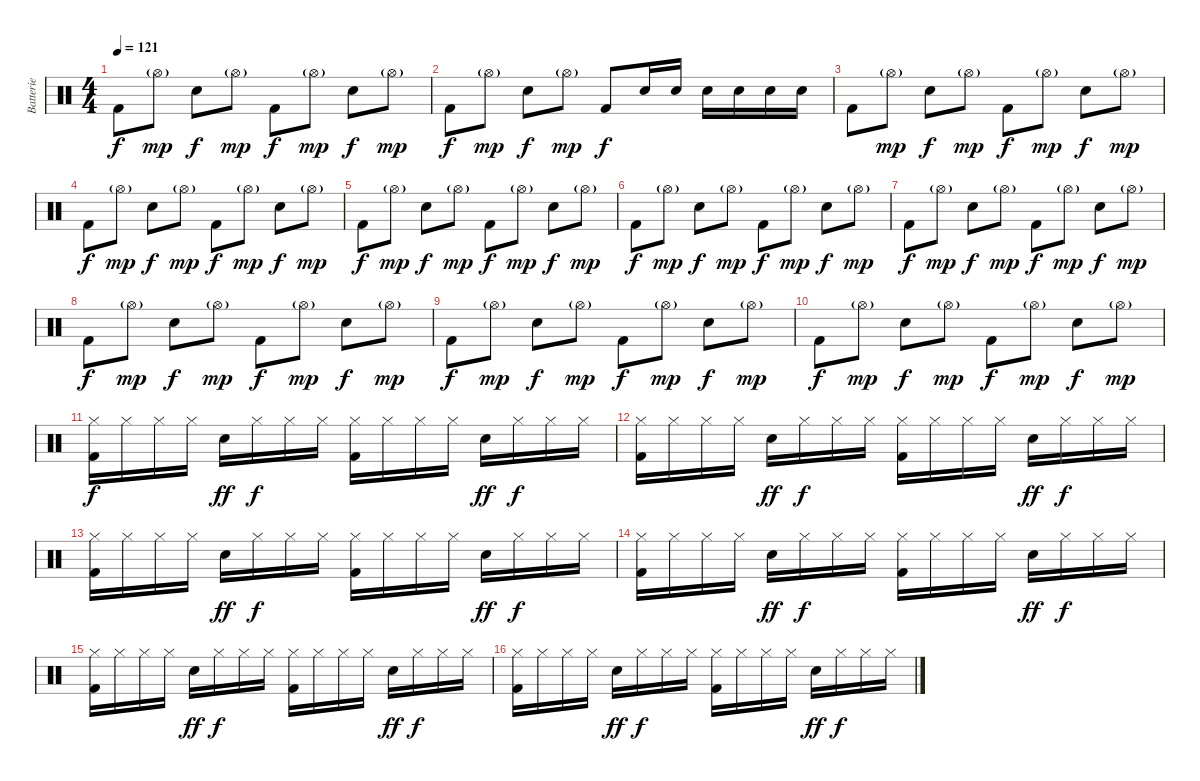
\track ("Batterie" "Batterie") {instrument percussion}
\staff {score}
\articulation defaults
\ts (4 4)
\tempo 121
\clef neutral
\ks c "Kick (hit) 2".8{dy f} "Hi-Hat (open)"{g}.8{dy mp} "Electric Snare (hit)".8{dy f} "Hi-Hat (open)"{g}.8{dy mp} "Kick (hit) 2".8{dy f} "Hi-Hat (open)"{g}.8{dy mp} "Electric Snare (hit)".8{dy f} "Hi-Hat (open)"{g}.8{dy mp}
|
"Kick (hit) 2".8{dy f} "Hi-Hat (open)"{g}.8{dy mp} "Electric Snare (hit)".8{dy f} "Hi-Hat (open)"{g}.8{dy mp} "Kick (hit) 2".8{dy f} "Electric Snare (hit)".16 "Electric Snare (hit)".16 "Electric Snare (hit)".16 "Electric Snare (hit)".16 "Electric Snare (hit)".16 "Electric Snare (hit)".16 |
"Kick (hit) 2".8 "Hi-Hat (open)"{g}.8{dy mp} "Electric Snare (hit)".8{dy f} "Hi-Hat (open)"{g}.8{dy mp} "Kick (hit) 2".8{dy f} "Hi-Hat (open)"{g}.8{dy mp} "Electric Snare (hit)".8{dy f} "Hi-Hat (open)"{g}.8{dy mp} |
"Kick (hit) 2".8{dy f} "Hi-Hat (open)"{g}.8{dy mp} "Electric Snare (hit)".8{dy f} "Hi-Hat (open)"{g}.8{dy mp} "Kick (hit) 2".8{dy f} "Hi-Hat (open)"{g}.8{dy mp} "Electric Snare (hit)".8{dy f} "Hi-Hat (open)"{g}.8{dy mp} |
"Kick (hit) 2".8{dy f} "Hi-Hat (open)"{g}.8{dy mp} "Electric Snare (hit)".8{dy f} "Hi-Hat (open)"{g}.8{dy mp} "Kick (hit) 2".8{dy f} "Hi-Hat (open)"{g}.8{dy mp} "Electric Snare (hit)".8{dy f} "Hi-Hat (open)"{g}.8{dy mp} |
"Kick (hit) 2".8{dy f} "Hi-Hat (open)"{g}.8{dy mp} "Electric Snare (hit)".8{dy f} "Hi-Hat (open)"{g}.8{dy mp} "Kick (hit) 2".8{dy f} "Hi-Hat (open)"{g}.8{dy mp} "Electric Snare (hit)".8{dy f} "Hi-Hat (open)"{g}.8{dy mp} |
"Kick (hit) 2".8{dy f} "Hi-Hat (open)"{g}.8{dy mp} "Electric Snare (hit)".8{dy f} "Hi-Hat (open)"{g}.8{dy mp} "Kick (hit) 2".8{dy f} "Hi-Hat (open)"{g}.8{dy mp} "Electric Snare (hit)".8{dy f} "Hi-Hat (open)"{g}.8{dy mp} |
"Kick (hit) 2".8{dy f} "Hi-Hat (open)"{g}.8{dy mp} "Electric Snare (hit)".8{dy f} "Hi-Hat (open)"{g}.8{dy mp} "Kick (hit) 2".8{dy f} "Hi-Hat (open)"{g}.8{dy mp} "Electric Snare (hit)".8{dy f} "Hi-Hat (open)"{g}.8{dy mp} |
"Kick (hit) 2".8{dy f} "Hi-Hat (open)"{g}.8{dy mp} "Electric Snare (hit)".8{dy f} "Hi-Hat (open)"{g}.8{dy mp} "Kick (hit) 2".8{dy f} "Hi-Hat (open)"{g}.8{dy mp} "Electric Snare (hit)".8{dy f} "Hi-Hat (open)"{g}.8{dy mp} |
"Kick (hit) 2".8{dy f} "Hi-Hat (open)"{g}.8{dy mp} "Electric Snare (hit)".8{dy f} "Hi-Hat (open)"{g}.8{dy mp} "Kick (hit) 2".8{dy f} "Hi-Hat (open)"{g}.8{dy mp} "Electric Snare (hit)".8{dy f} "Hi-Hat (open)"{g}.8{dy mp} |
("Hi-Hat (closed)" "Kick (hit) 2").16{dy f} "Hi-Hat (closed)".16 "Hi-Hat (closed)".16 "Hi-Hat (closed)".16 "Electric Snare (hit)".16{dy ff} "Hi-Hat (closed)".16{dy f} "Hi-Hat (closed)".16 "Hi-Hat (closed)".16 ("Hi-Hat (closed)" "Kick (hit) 2").16 "Hi-Hat (closed)".16 "Hi-Hat (closed)".16 "Hi-Hat (closed)".16 "Electric Snare (hit)".16{dy ff} "Hi-Hat (closed)".16{dy f} "Hi-Hat (closed)".16 "Hi-Hat (closed)".16 |
("Hi-Hat (closed)" "Kick (hit) 2").16 "Hi-Hat (closed)".16 "Hi-Hat (closed)".16 "Hi-Hat (closed)".16 "Electric Snare (hit)".16{dy ff} "Hi-Hat (closed)".16{dy f} "Hi-Hat (closed)".16 "Hi-Hat (closed)".16 ("Hi-Hat (closed)" "Kick (hit) 2").16 "Hi-Hat (closed)".16 "Hi-Hat (closed)".16 "Hi-Hat (closed)".16 "Electric Snare (hit)".16{dy ff} "Hi-Hat (closed)".16{dy f} "Hi-Hat (closed)".16 "Hi-Hat (closed)".16 |
("Hi-Hat (closed)" "Kick (hit) 2").16 "Hi-Hat (closed)".16 "Hi-Hat (closed)".16 "Hi-Hat (closed)".16 "Electric Snare (hit)".16{dy ff} "Hi-Hat (closed)".16{dy f} "Hi-Hat (closed)".16 "Hi-Hat (closed)".16 ("Hi-Hat (closed)" "Kick (hit) 2").16 "Hi-Hat (closed)".16 "Hi-Hat (closed)".16 "Hi-Hat (closed)".16 "Electric Snare (hit)".16{dy ff} "Hi-Hat (closed)".16{dy f} "Hi-Hat (closed)".16 "Hi-Hat (closed)".16 |
("Hi-Hat (closed)" "Kick (hit) 2").16 "Hi-Hat (closed)".16 "Hi-Hat (closed)".16 "Hi-Hat (closed)".16 "Electric Snare (hit)".16{dy ff} "Hi-Hat (closed)".16{dy f} "Hi-Hat (closed)".16 "Hi-Hat (closed)".16 ("Hi-Hat (closed)" "Kick (hit) 2").16 "Hi-Hat (closed)".16 "Hi-Hat (closed)".16 "Hi-Hat (closed)".16 "Electric Snare (hit)".16{dy ff} "Hi-Hat (closed)".16{dy f} "Hi-Hat (closed)".16 "Hi-Hat (closed)".16 |
("Hi-Hat (closed)" "Kick (hit) 2").16 "Hi-Hat (closed)".16 "Hi-Hat (closed)".16 "Hi-Hat (closed)".16 "Electric Snare (hit)".16{dy ff} "Hi-Hat (closed)".16{dy f} "Hi-Hat (closed)".16 "Hi-Hat (closed)".16 ("Hi-Hat (closed)" "Kick (hit) 2").16 "Hi-Hat (closed)".16 "Hi-Hat (closed)".16 "Hi-Hat (closed)".16 "Electric Snare (hit)".16{dy ff} "Hi-Hat (closed)".16{dy f} "Hi-Hat (closed)".16 "Hi-Hat (closed)".16 |
("Hi-Hat (closed)" "Kick (hit) 2").16 "Hi-Hat (closed)".16 "Hi-Hat (closed)".16 "Hi-Hat (closed)".16 "Electric Snare (hit)".16{dy ff} "Hi-Hat (closed)".16{dy f} "Hi-Hat (closed)".16 "Hi-Hat (closed)".16 ("Hi-Hat (closed)" "Kick (hit) 2").16 "Hi-Hat (closed)".16 "Hi-Hat (closed)".16 "Hi-Hat (closed)".16 "Electric Snare (hit)".16{dy ff} "Hi-Hat (closed)".16{dy f} "Hi-Hat (closed)".16 "Hi-Hat (closed)".16
